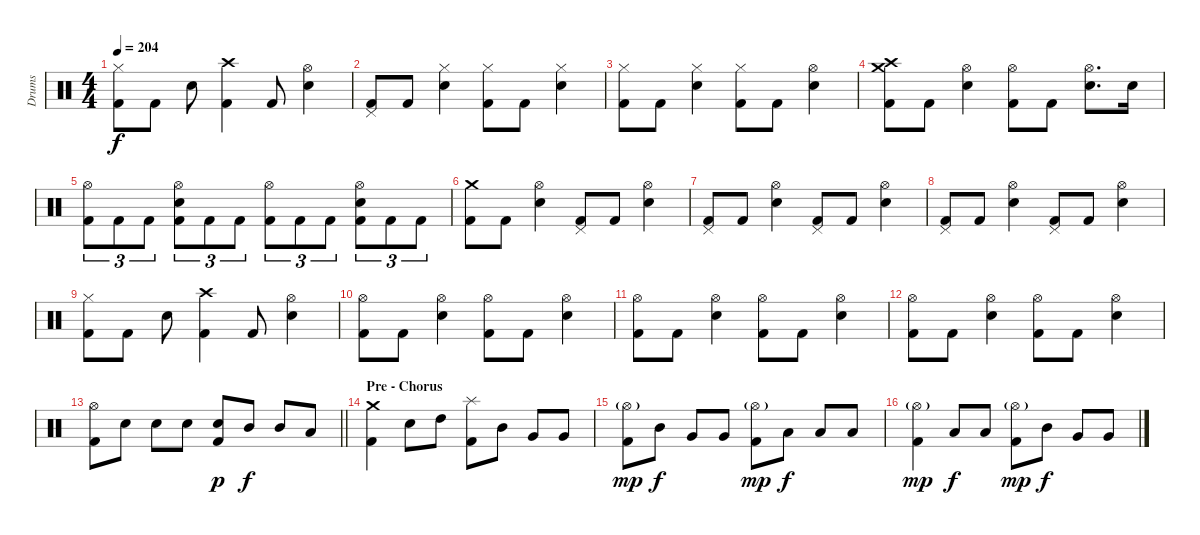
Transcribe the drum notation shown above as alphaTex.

\track ("Drums" "Drums") {instrument percussion}
\staff {score}
\articulation defaults
\ts (4 4)
\tempo 204
\clef neutral
\ks c
("Hi-Hat (closed)" "Kick (hit) 2").8{dy f} "Kick (hit) 2".8 "Electric Snare (hit)".8 ("Crash high (hit)" "Kick (hit) 2").4 "Kick (hit) 2".8 ("Hi-Hat (open)" "Electric Snare (hit)").4 |
("Pedal Hi-Hat (hit)" "Kick (hit) 2").8 "Kick (hit) 2".8 ("Hi-Hat (closed)" "Electric Snare (hit)").4 ("Hi-Hat (closed)" "Kick (hit) 2").8 "Kick (hit) 2".8 ("Hi-Hat (closed)" "Electric Snare (hit)").4 |
("Hi-Hat (closed)" "Kick (hit) 2").8 "Kick (hit) 2".8 ("Hi-Hat (closed)" "Electric Snare (hit)").4 ("Hi-Hat (closed)" "Kick (hit) 2").8 "Kick (hit) 2".8 ("Hi-Hat (open)" "Electric Snare (hit)").4 |
("Crash medium (hit)" "Crash high (hit)" "Kick (hit) 2").8 "Kick (hit) 2".8 ("Hi-Hat (open)" "Electric Snare (hit)").4 ("Hi-Hat (open)" "Kick (hit) 2").8 "Kick (hit) 2".8 ("Hi-Hat (open)" "Electric Snare (hit)").8{d} "Electric Snare (hit)".16 |
("Hi-Hat (open)" "Kick (hit) 2").8{tu (3 2)} "Kick (hit) 2".8{tu (3 2)} "Kick (hit) 2".8{tu (3 2)} ("Hi-Hat (open)" "Electric Snare (hit)" "Kick (hit) 2").8{tu (3 2)} "Kick (hit) 2".8{tu (3 2)} "Kick (hit) 2".8{tu (3 2)} ("Hi-Hat (open)" "Kick (hit) 2").8{tu (3 2)} "Kick (hit) 2".8{tu (3 2)} "Kick (hit) 2".8{tu (3 2)} ("Hi-Hat (open)" "Electric Snare (hit)" "Kick (hit) 2").8{tu (3 2)} "Kick (hit) 2".8{tu (3 2)} "Kick (hit) 2".8{tu (3 2)} |
("Crash medium (hit)" "Kick (hit) 2").8 "Kick (hit) 2".8 ("Hi-Hat (open)" "Electric Snare (hit)").4 ("Pedal Hi-Hat (hit)" "Kick (hit) 2").8 "Kick (hit) 2".8 ("Hi-Hat (open)" "Electric Snare (hit)").4 |
("Pedal Hi-Hat (hit)" "Kick (hit) 2").8 "Kick (hit) 2".8 ("Hi-Hat (open)" "Electric Snare (hit)").4 ("Pedal Hi-Hat (hit)" "Kick (hit) 2").8 "Kick (hit) 2".8 ("Hi-Hat (open)" "Electric Snare (hit)").4 |
("Pedal Hi-Hat (hit)" "Kick (hit) 2").8 "Kick (hit) 2".8 ("Hi-Hat (open)" "Electric Snare (hit)").4 ("Pedal Hi-Hat (hit)" "Kick (hit) 2").8 "Kick (hit) 2".8 ("Hi-Hat (open)" "Electric Snare (hit)").4 |
("Hi-Hat (closed)" "Kick (hit) 2").8 "Kick (hit) 2".8 "Electric Snare (hit)".8 ("Crash high (hit)" "Kick (hit) 2").4 "Kick (hit) 2".8 ("Hi-Hat (open)" "Electric Snare (hit)").4 |
("Hi-Hat (open)" "Kick (hit) 2").8 "Kick (hit) 2".8 ("Hi-Hat (open)" "Electric Snare (hit)").4 ("Hi-Hat (open)" "Kick (hit) 2").8 "Kick (hit) 2".8 ("Hi-Hat (open)" "Electric Snare (hit)").4 |
("Hi-Hat (open)" "Kick (hit) 2").8 "Kick (hit) 2".8 ("Hi-Hat (open)" "Electric Snare (hit)").4 ("Hi-Hat (open)" "Kick (hit) 2").8 "Kick (hit) 2".8 ("Hi-Hat (open)" "Electric Snare (hit)").4 |
("Hi-Hat (open)" "Kick (hit) 2").8 "Kick (hit) 2".8 ("Hi-Hat (open)" "Electric Snare (hit)").4 ("Hi-Hat (open)" "Kick (hit) 2").8 "Kick (hit) 2".8 ("Hi-Hat (open)" "Electric Snare (hit)").4 |
\barLineRight lightlight
("Hi-Hat (open)" "Kick (hit) 2").8 "Electric Snare (hit)".8 "Electric Snare (hit)".8 "Electric Snare (hit)".8 ("Electric Snare (hit)" "Kick (hit) 2").8{dy p} "Mid Tom (hit)".8{dy f} "Mid Tom (hit)".8 "Low Tom (hit)".8 |
\section ("" "Pre - Chorus")
("Crash medium (hit)" "Kick (hit) 2").4 "Electric Snare (hit)".8 "High Tom (hit)".8 ("Splash (hit)" "Kick (hit) 2").8 "Mid Tom (hit)".8 "Very Low Tom (hit)".8 "Very Low Tom (hit)".8 |
("Hi-Hat (open)"{g} "Kick (hit) 2").8{dy mp} "Mid Tom (hit)".8{dy f} "Very Low Tom (hit)".8 "Very Low Tom (hit)".8 ("Hi-Hat (open)"{g} "Kick (hit) 2").8{dy mp} "Low Tom (hit)".8{dy f} "Low Floor Tom (hit)".8 "Low Floor Tom (hit)".8 |
("Hi-Hat (open)"{g} "Kick (hit) 2").4{dy mp} "Low Floor Tom (hit)".8{dy f} "Low Floor Tom (hit)".8 ("Hi-Hat (open)"{g} "Kick (hit) 2").8{dy mp} "Mid Tom (hit)".8{dy f} "Very Low Tom (hit)".8 "Very Low Tom (hit)".8
